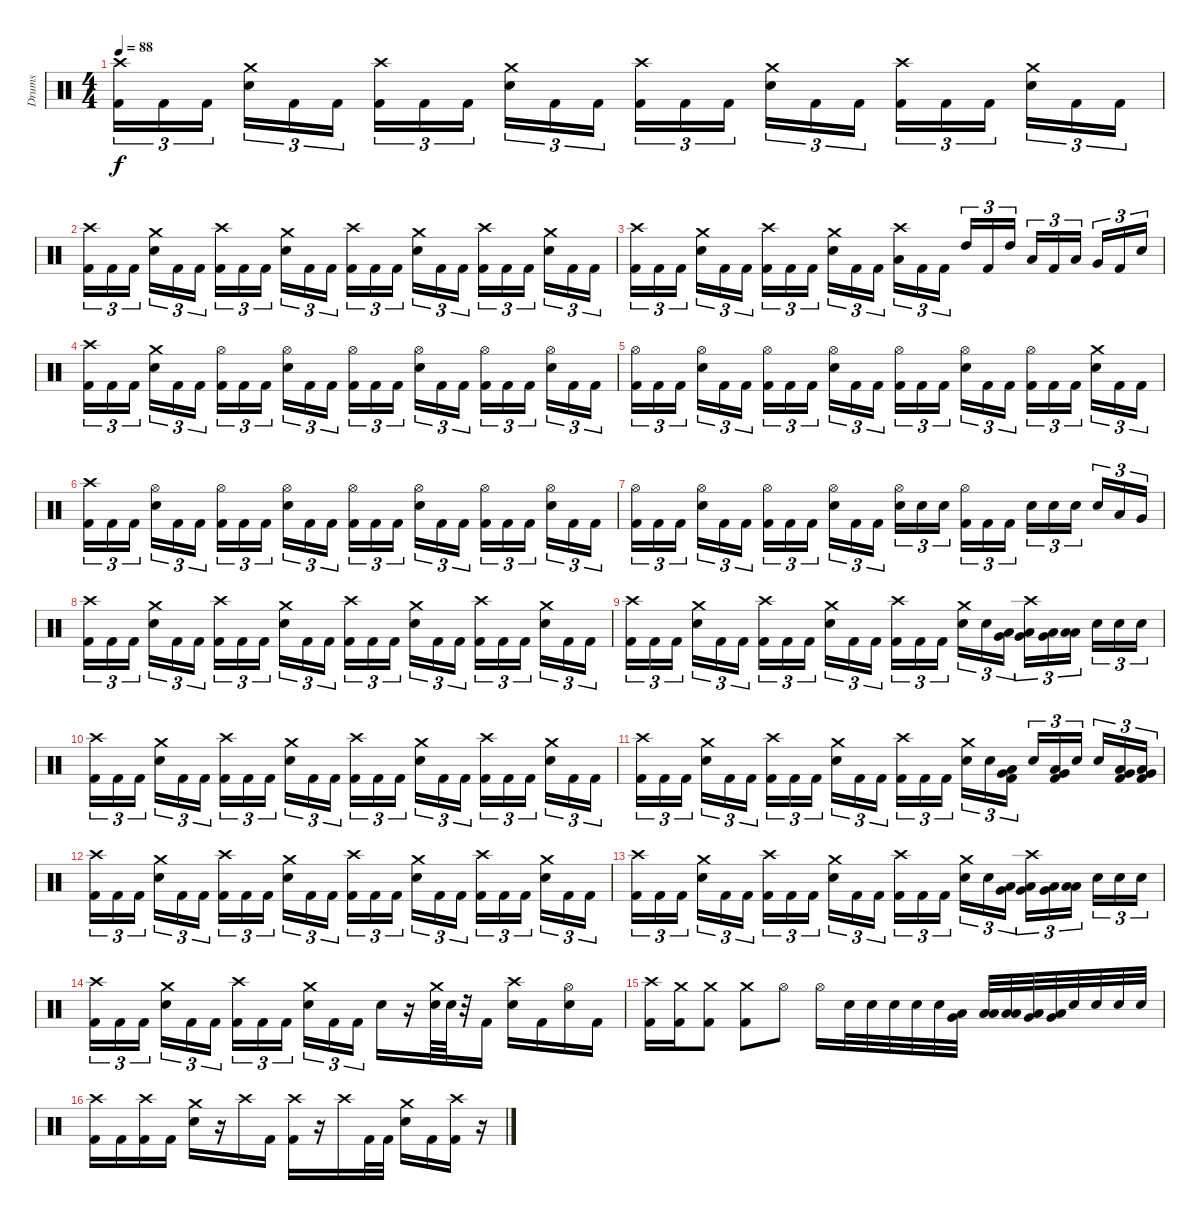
\track ("Drums" "Drums") {instrument percussion}
\staff {score}
\articulation defaults
\ts (4 4)
\tempo 88
\clef neutral
\ks c
("Crash high (hit)" "Kick (hit) 2").16{tu (3 2) dy f} "Kick (hit) 2".16{tu (3 2)} "Kick (hit) 2".16{tu (3 2)} ("Crash medium (hit)" "Electric Snare (hit)").16{tu (3 2)} "Kick (hit) 2".16{tu (3 2)} "Kick (hit) 2".16{tu (3 2)} ("Crash high (hit)" "Kick (hit) 2").16{tu (3 2)} "Kick (hit) 2".16{tu (3 2)} "Kick (hit) 2".16{tu (3 2)} ("Crash medium (hit)" "Electric Snare (hit)").16{tu (3 2)} "Kick (hit) 2".16{tu (3 2)} "Kick (hit) 2".16{tu (3 2)} ("Crash high (hit)" "Kick (hit) 2").16{tu (3 2)} "Kick (hit) 2".16{tu (3 2)} "Kick (hit) 2".16{tu (3 2)} ("Crash medium (hit)" "Electric Snare (hit)").16{tu (3 2)} "Kick (hit) 2".16{tu (3 2)} "Kick (hit) 2".16{tu (3 2)} ("Crash high (hit)" "Kick (hit) 2").16{tu (3 2)} "Kick (hit) 2".16{tu (3 2)} "Kick (hit) 2".16{tu (3 2)} ("Crash medium (hit)" "Electric Snare (hit)").16{tu (3 2)} "Kick (hit) 2".16{tu (3 2)} "Kick (hit) 2".16{tu (3 2)} |
("Crash high (hit)" "Kick (hit) 2").16{tu (3 2)} "Kick (hit) 2".16{tu (3 2)} "Kick (hit) 2".16{tu (3 2)} ("Crash medium (hit)" "Electric Snare (hit)").16{tu (3 2)} "Kick (hit) 2".16{tu (3 2)} "Kick (hit) 2".16{tu (3 2)} ("Crash high (hit)" "Kick (hit) 2").16{tu (3 2)} "Kick (hit) 2".16{tu (3 2)} "Kick (hit) 2".16{tu (3 2)} ("Crash medium (hit)" "Electric Snare (hit)").16{tu (3 2)} "Kick (hit) 2".16{tu (3 2)} "Kick (hit) 2".16{tu (3 2)} ("Crash high (hit)" "Kick (hit) 2").16{tu (3 2)} "Kick (hit) 2".16{tu (3 2)} "Kick (hit) 2".16{tu (3 2)} ("Crash medium (hit)" "Electric Snare (hit)").16{tu (3 2)} "Kick (hit) 2".16{tu (3 2)} "Kick (hit) 2".16{tu (3 2)} ("Crash high (hit)" "Kick (hit) 2").16{tu (3 2)} "Kick (hit) 2".16{tu (3 2)} "Kick (hit) 2".16{tu (3 2)} ("Crash medium (hit)" "Electric Snare (hit)").16{tu (3 2)} "Kick (hit) 2".16{tu (3 2)} "Kick (hit) 2".16{tu (3 2)} |
("Crash high (hit)" "Kick (hit) 2").16{tu (3 2)} "Kick (hit) 2".16{tu (3 2)} "Kick (hit) 2".16{tu (3 2)} ("Crash medium (hit)" "Electric Snare (hit)").16{tu (3 2)} "Kick (hit) 2".16{tu (3 2)} "Kick (hit) 2".16{tu (3 2)} ("Crash high (hit)" "Kick (hit) 2").16{tu (3 2)} "Kick (hit) 2".16{tu (3 2)} "Kick (hit) 2".16{tu (3 2)} ("Crash medium (hit)" "Electric Snare (hit)").16{tu (3 2)} "Kick (hit) 2".16{tu (3 2)} "Kick (hit) 2".16{tu (3 2)} ("Crash high (hit)" "Low Tom (hit)").16{tu (3 2)} "Kick (hit) 2".16{tu (3 2)} "Kick (hit) 2".16{tu (3 2)} "High Tom (hit)".16{tu (3 2)} "Kick (hit) 2".16{tu (3 2)} "High Tom (hit)".16{tu (3 2)} "Low Tom (hit)".16{tu (3 2)} "Kick (hit) 2".16{tu (3 2)} "Low Tom (hit)".16{tu (3 2)} "Very Low Tom (hit)".16{tu (3 2)} "Kick (hit) 2".16{tu (3 2)} "Electric Snare (hit)".16{tu (3 2)} |
("Crash high (hit)" "Kick (hit) 2").16{tu (3 2)} "Kick (hit) 2".16{tu (3 2)} "Kick (hit) 2".16{tu (3 2)} ("Crash medium (hit)" "Electric Snare (hit)").16{tu (3 2)} "Kick (hit) 2".16{tu (3 2)} "Kick (hit) 2".16{tu (3 2)} ("Hi-Hat (open)" "Kick (hit) 2").16{tu (3 2)} "Kick (hit) 2".16{tu (3 2)} "Kick (hit) 2".16{tu (3 2)} ("Hi-Hat (open)" "Electric Snare (hit)").16{tu (3 2)} "Kick (hit) 2".16{tu (3 2)} "Kick (hit) 2".16{tu (3 2)} ("Hi-Hat (open)" "Kick (hit) 2").16{tu (3 2)} "Kick (hit) 2".16{tu (3 2)} "Kick (hit) 2".16{tu (3 2)} ("Hi-Hat (open)" "Electric Snare (hit)").16{tu (3 2)} "Kick (hit) 2".16{tu (3 2)} "Kick (hit) 2".16{tu (3 2)} ("Hi-Hat (open)" "Kick (hit) 2").16{tu (3 2)} "Kick (hit) 2".16{tu (3 2)} "Kick (hit) 2".16{tu (3 2)} ("Hi-Hat (open)" "Electric Snare (hit)").16{tu (3 2)} "Kick (hit) 2".16{tu (3 2)} "Kick (hit) 2".16{tu (3 2)} |
("Hi-Hat (open)" "Kick (hit) 2").16{tu (3 2)} "Kick (hit) 2".16{tu (3 2)} "Kick (hit) 2".16{tu (3 2)} ("Hi-Hat (open)" "Electric Snare (hit)").16{tu (3 2)} "Kick (hit) 2".16{tu (3 2)} "Kick (hit) 2".16{tu (3 2)} ("Hi-Hat (open)" "Kick (hit) 2").16{tu (3 2)} "Kick (hit) 2".16{tu (3 2)} "Kick (hit) 2".16{tu (3 2)} ("Hi-Hat (open)" "Electric Snare (hit)").16{tu (3 2)} "Kick (hit) 2".16{tu (3 2)} "Kick (hit) 2".16{tu (3 2)} ("Hi-Hat (open)" "Kick (hit) 2").16{tu (3 2)} "Kick (hit) 2".16{tu (3 2)} "Kick (hit) 2".16{tu (3 2)} ("Hi-Hat (open)" "Electric Snare (hit)").16{tu (3 2)} "Kick (hit) 2".16{tu (3 2)} "Kick (hit) 2".16{tu (3 2)} ("Hi-Hat (open)" "Kick (hit) 2").16{tu (3 2)} "Kick (hit) 2".16{tu (3 2)} "Kick (hit) 2".16{tu (3 2)} ("Crash medium (hit)" "Electric Snare (hit)").16{tu (3 2)} "Kick (hit) 2".16{tu (3 2)} "Kick (hit) 2".16{tu (3 2)} |
("Crash high (hit)" "Kick (hit) 2").16{tu (3 2)} "Kick (hit) 2".16{tu (3 2)} "Kick (hit) 2".16{tu (3 2)} ("Hi-Hat (open)" "Electric Snare (hit)").16{tu (3 2)} "Kick (hit) 2".16{tu (3 2)} "Kick (hit) 2".16{tu (3 2)} ("Hi-Hat (open)" "Kick (hit) 2").16{tu (3 2)} "Kick (hit) 2".16{tu (3 2)} "Kick (hit) 2".16{tu (3 2)} ("Hi-Hat (open)" "Electric Snare (hit)").16{tu (3 2)} "Kick (hit) 2".16{tu (3 2)} "Kick (hit) 2".16{tu (3 2)} ("Hi-Hat (open)" "Kick (hit) 2").16{tu (3 2)} "Kick (hit) 2".16{tu (3 2)} "Kick (hit) 2".16{tu (3 2)} ("Hi-Hat (open)" "Electric Snare (hit)").16{tu (3 2)} "Kick (hit) 2".16{tu (3 2)} "Kick (hit) 2".16{tu (3 2)} ("Hi-Hat (open)" "Kick (hit) 2").16{tu (3 2)} "Kick (hit) 2".16{tu (3 2)} "Kick (hit) 2".16{tu (3 2)} ("Hi-Hat (open)" "Electric Snare (hit)").16{tu (3 2)} "Kick (hit) 2".16{tu (3 2)} "Kick (hit) 2".16{tu (3 2)} |
("Hi-Hat (open)" "Kick (hit) 2").16{tu (3 2)} "Kick (hit) 2".16{tu (3 2)} "Kick (hit) 2".16{tu (3 2)} ("Hi-Hat (open)" "Electric Snare (hit)").16{tu (3 2)} "Kick (hit) 2".16{tu (3 2)} "Kick (hit) 2".16{tu (3 2)} ("Hi-Hat (open)" "Kick (hit) 2").16{tu (3 2)} "Kick (hit) 2".16{tu (3 2)} "Kick (hit) 2".16{tu (3 2)} ("Hi-Hat (open)" "Electric Snare (hit)").16{tu (3 2)} "Kick (hit) 2".16{tu (3 2)} "Kick (hit) 2".16{tu (3 2)} ("Hi-Hat (open)" "Electric Snare (hit)").16{tu (3 2)} "Electric Snare (hit)".16{tu (3 2)} "Electric Snare (hit)".16{tu (3 2)} ("Hi-Hat (open)" "Kick (hit) 2").16{tu (3 2)} "Kick (hit) 2".16{tu (3 2)} "Kick (hit) 2".16{tu (3 2)} "Electric Snare (hit)".16{tu (3 2)} "Electric Snare (hit)".16{tu (3 2)} "Electric Snare (hit)".16{tu (3 2)} "Electric Snare (hit)".16{tu (3 2)} "Low Tom (hit)".16{tu (3 2)} "Very Low Tom (hit)".16{tu (3 2)} |
("Crash high (hit)" "Kick (hit) 2").16{tu (3 2)} "Kick (hit) 2".16{tu (3 2)} "Kick (hit) 2".16{tu (3 2)} ("Crash medium (hit)" "Electric Snare (hit)").16{tu (3 2)} "Kick (hit) 2".16{tu (3 2)} "Kick (hit) 2".16{tu (3 2)} ("Crash high (hit)" "Kick (hit) 2").16{tu (3 2)} "Kick (hit) 2".16{tu (3 2)} "Kick (hit) 2".16{tu (3 2)} ("Crash medium (hit)" "Electric Snare (hit)").16{tu (3 2)} "Kick (hit) 2".16{tu (3 2)} "Kick (hit) 2".16{tu (3 2)} ("Crash high (hit)" "Kick (hit) 2").16{tu (3 2)} "Kick (hit) 2".16{tu (3 2)} "Kick (hit) 2".16{tu (3 2)} ("Crash medium (hit)" "Electric Snare (hit)").16{tu (3 2)} "Kick (hit) 2".16{tu (3 2)} "Kick (hit) 2".16{tu (3 2)} ("Crash high (hit)" "Kick (hit) 2").16{tu (3 2)} "Kick (hit) 2".16{tu (3 2)} "Kick (hit) 2".16{tu (3 2)} ("Crash medium (hit)" "Electric Snare (hit)").16{tu (3 2)} "Kick (hit) 2".16{tu (3 2)} "Kick (hit) 2".16{tu (3 2)} |
("Crash high (hit)" "Kick (hit) 2").16{tu (3 2)} "Kick (hit) 2".16{tu (3 2)} "Kick (hit) 2".16{tu (3 2)} ("Crash medium (hit)" "Electric Snare (hit)").16{tu (3 2)} "Kick (hit) 2".16{tu (3 2)} "Kick (hit) 2".16{tu (3 2)} ("Crash high (hit)" "Kick (hit) 2").16{tu (3 2)} "Kick (hit) 2".16{tu (3 2)} "Kick (hit) 2".16{tu (3 2)} ("Crash medium (hit)" "Electric Snare (hit)").16{tu (3 2)} "Kick (hit) 2".16{tu (3 2)} "Kick (hit) 2".16{tu (3 2)} ("Crash high (hit)" "Kick (hit) 2").16{tu (3 2)} "Kick (hit) 2".16{tu (3 2)} "Kick (hit) 2".16{tu (3 2)} ("Crash medium (hit)" "Electric Snare (hit)").16{tu (3 2)} "Electric Snare (hit)".16{tu (3 2)} ("Low Tom (hit)" "Very Low Tom (hit)").16{tu (3 2)} ("Crash high (hit)" "Very Low Tom (hit)" "Low Floor Tom (hit)").16{tu (3 2)} ("Very Low Tom (hit)" "Low Floor Tom (hit)").16{tu (3 2)} ("Low Floor Tom (hit)" "Low Floor Tom (hit)").16{tu (3 2)} "Electric Snare (hit)".16{tu (3 2)} "Electric Snare (hit)".16{tu (3 2)} "Electric Snare (hit)".16{tu (3 2)} |
("Crash high (hit)" "Kick (hit) 2").16{tu (3 2)} "Kick (hit) 2".16{tu (3 2)} "Kick (hit) 2".16{tu (3 2)} ("Crash medium (hit)" "Electric Snare (hit)").16{tu (3 2)} "Kick (hit) 2".16{tu (3 2)} "Kick (hit) 2".16{tu (3 2)} ("Crash high (hit)" "Kick (hit) 2").16{tu (3 2)} "Kick (hit) 2".16{tu (3 2)} "Kick (hit) 2".16{tu (3 2)} ("Crash medium (hit)" "Electric Snare (hit)").16{tu (3 2)} "Kick (hit) 2".16{tu (3 2)} "Kick (hit) 2".16{tu (3 2)} ("Crash high (hit)" "Kick (hit) 2").16{tu (3 2)} "Kick (hit) 2".16{tu (3 2)} "Kick (hit) 2".16{tu (3 2)} ("Crash medium (hit)" "Electric Snare (hit)").16{tu (3 2)} "Kick (hit) 2".16{tu (3 2)} "Kick (hit) 2".16{tu (3 2)} ("Crash high (hit)" "Kick (hit) 2").16{tu (3 2)} "Kick (hit) 2".16{tu (3 2)} "Kick (hit) 2".16{tu (3 2)} ("Crash medium (hit)" "Electric Snare (hit)").16{tu (3 2)} "Kick (hit) 2".16{tu (3 2)} "Kick (hit) 2".16{tu (3 2)} |
("Crash high (hit)" "Kick (hit) 2").16{tu (3 2)} "Kick (hit) 2".16{tu (3 2)} "Kick (hit) 2".16{tu (3 2)} ("Crash medium (hit)" "Electric Snare (hit)").16{tu (3 2)} "Kick (hit) 2".16{tu (3 2)} "Kick (hit) 2".16{tu (3 2)} ("Crash high (hit)" "Kick (hit) 2").16{tu (3 2)} "Kick (hit) 2".16{tu (3 2)} "Kick (hit) 2".16{tu (3 2)} ("Crash medium (hit)" "Electric Snare (hit)").16{tu (3 2)} "Kick (hit) 2".16{tu (3 2)} "Kick (hit) 2".16{tu (3 2)} ("Crash high (hit)" "Kick (hit) 2").16{tu (3 2)} "Kick (hit) 2".16{tu (3 2)} "Kick (hit) 2".16{tu (3 2)} ("Crash medium (hit)" "Electric Snare (hit)").16{tu (3 2)} "Electric Snare (hit)".16{tu (3 2)} ("Very Low Tom (hit)" "Low Tom (hit)" "Kick (hit) 2").16{tu (3 2)} "Electric Snare (hit)".16{tu (3 2)} ("Low Floor Tom (hit)" "Very Low Tom (hit)" "Kick (hit) 2").16{tu (3 2)} "Electric Snare (hit)".16{tu (3 2)} "Electric Snare (hit)".16{tu (3 2)} ("Very Low Tom (hit)" "Low Tom (hit)" "Kick (hit) 2").16{tu (3 2)} ("Low Floor Tom (hit)" "Very Low Tom (hit)" "Kick (hit) 2").16{tu (3 2)} |
("Crash high (hit)" "Kick (hit) 2").16{tu (3 2)} "Kick (hit) 2".16{tu (3 2)} "Kick (hit) 2".16{tu (3 2)} ("Crash medium (hit)" "Electric Snare (hit)").16{tu (3 2)} "Kick (hit) 2".16{tu (3 2)} "Kick (hit) 2".16{tu (3 2)} ("Crash high (hit)" "Kick (hit) 2").16{tu (3 2)} "Kick (hit) 2".16{tu (3 2)} "Kick (hit) 2".16{tu (3 2)} ("Crash medium (hit)" "Electric Snare (hit)").16{tu (3 2)} "Kick (hit) 2".16{tu (3 2)} "Kick (hit) 2".16{tu (3 2)} ("Crash high (hit)" "Kick (hit) 2").16{tu (3 2)} "Kick (hit) 2".16{tu (3 2)} "Kick (hit) 2".16{tu (3 2)} ("Crash medium (hit)" "Electric Snare (hit)").16{tu (3 2)} "Kick (hit) 2".16{tu (3 2)} "Kick (hit) 2".16{tu (3 2)} ("Crash high (hit)" "Kick (hit) 2").16{tu (3 2)} "Kick (hit) 2".16{tu (3 2)} "Kick (hit) 2".16{tu (3 2)} ("Crash medium (hit)" "Electric Snare (hit)").16{tu (3 2)} "Kick (hit) 2".16{tu (3 2)} "Kick (hit) 2".16{tu (3 2)} |
("Crash high (hit)" "Kick (hit) 2").16{tu (3 2)} "Kick (hit) 2".16{tu (3 2)} "Kick (hit) 2".16{tu (3 2)} ("Crash medium (hit)" "Electric Snare (hit)").16{tu (3 2)} "Kick (hit) 2".16{tu (3 2)} "Kick (hit) 2".16{tu (3 2)} ("Crash high (hit)" "Kick (hit) 2").16{tu (3 2)} "Kick (hit) 2".16{tu (3 2)} "Kick (hit) 2".16{tu (3 2)} ("Crash medium (hit)" "Electric Snare (hit)").16{tu (3 2)} "Kick (hit) 2".16{tu (3 2)} "Kick (hit) 2".16{tu (3 2)} ("Crash high (hit)" "Kick (hit) 2").16{tu (3 2)} "Kick (hit) 2".16{tu (3 2)} "Kick (hit) 2".16{tu (3 2)} ("Crash medium (hit)" "Electric Snare (hit)").16{tu (3 2)} "Electric Snare (hit)".16{tu (3 2)} ("Low Tom (hit)" "Very Low Tom (hit)").16{tu (3 2)} ("Crash high (hit)" "Very Low Tom (hit)" "Low Floor Tom (hit)").16{tu (3 2)} ("Very Low Tom (hit)" "Low Floor Tom (hit)").16{tu (3 2)} ("Low Floor Tom (hit)" "Low Floor Tom (hit)").16{tu (3 2)} "Electric Snare (hit)".16{tu (3 2)} "Electric Snare (hit)".16{tu (3 2)} "Electric Snare (hit)".16{tu (3 2)} |
("Crash high (hit)" "Kick (hit) 2").16{tu (3 2)} "Kick (hit) 2".16{tu (3 2)} "Kick (hit) 2".16{tu (3 2)} ("Crash medium (hit)" "Electric Snare (hit)").16{tu (3 2)} "Kick (hit) 2".16{tu (3 2)} "Kick (hit) 2".16{tu (3 2)} ("Crash high (hit)" "Kick (hit) 2").16{tu (3 2)} "Kick (hit) 2".16{tu (3 2)} "Kick (hit) 2".16{tu (3 2)} ("Crash medium (hit)" "Electric Snare (hit)").16{tu (3 2)} "Kick (hit) 2".16{tu (3 2)} "Kick (hit) 2".16{tu (3 2)} "Electric Snare (hit)".16 r.16 ("Crash medium (hit)" "Electric Snare (hit)").64 "Electric Snare (hit)".64 r.32 "Kick (hit) 2".16 ("Crash high (hit)" "Electric Snare (hit)").16 "Kick (hit) 2".16 ("Hi-Hat (open)" "Electric Snare (hit)").16 "Kick (hit) 2".16 |
("Crash high (hit)" "Kick (hit) 2").16 ("Crash medium (hit)" "Kick (hit) 2").16 ("Crash medium (hit)" "Kick (hit) 2").8 ("Crash medium (hit)" "Kick (hit) 2").8 "Hi-Hat (open)".8 "Hi-Hat (open)".16 "Electric Snare (hit)".32 "Electric Snare (hit)".32 "Electric Snare (hit)".32 "Electric Snare (hit)".32 "Electric Snare (hit)".32 ("Very Low Tom (hit)" "Low Floor Tom (hit)").32 ("Low Tom (hit)" "Low Floor Tom (hit)").32 ("Low Tom (hit)" "Low Floor Tom (hit)").32 ("Very Low Tom (hit)" "Low Floor Tom (hit)").32 ("Very Low Tom (hit)" "Low Floor Tom (hit)").32 "Electric Snare (hit)".32 "Electric Snare (hit)".32 "Electric Snare (hit)".32 "Electric Snare (hit)".32 |
("Crash high (hit)" "Kick (hit) 2").16 "Kick (hit) 2".16 ("Crash high (hit)" "Kick (hit) 2").16 "Kick (hit) 2".16 ("Crash medium (hit)" "Electric Snare (hit)").16 r.16 "Crash high (hit)".16 "Kick (hit) 2".16 ("Crash high (hit)" "Kick (hit) 2").16 r.16 "Crash high (hit)".16 "Kick (hit) 2".32 "Kick (hit) 2".32 ("Crash medium (hit)" "Electric Snare (hit)").16 "Kick (hit) 2".16 ("Crash high (hit)" "Kick (hit) 2").16 r.16
